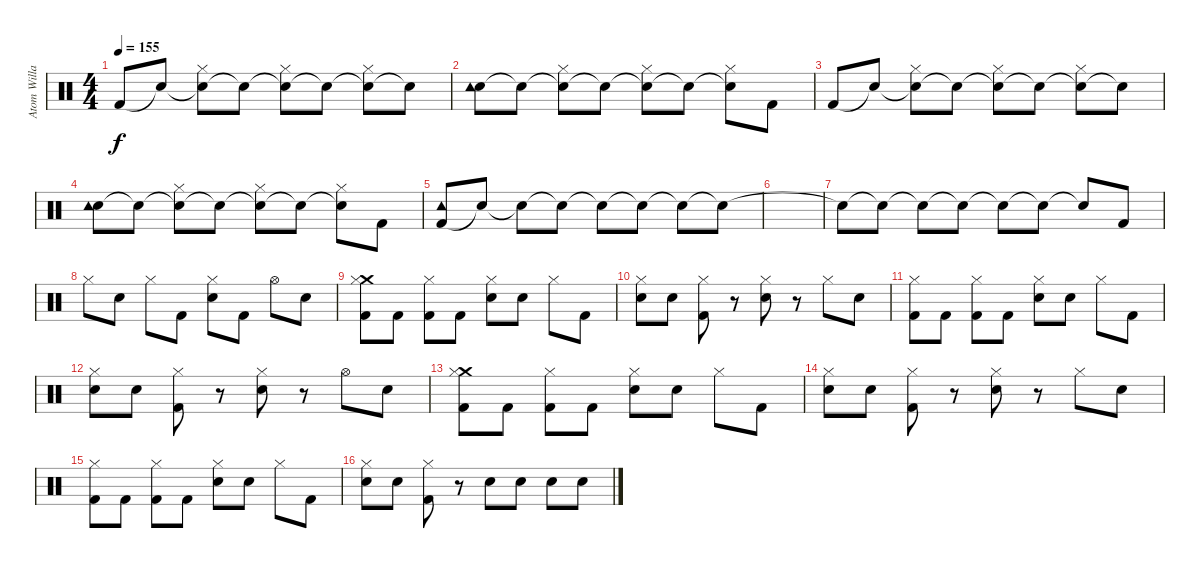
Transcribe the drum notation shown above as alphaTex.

\track ("Atom Willard - Drums" "Atom Willa") {instrument percussion}
\staff {score}
\articulation defaults
\ts (4 4)
\tempo 155
\clef neutral
\ks c "Kick (hit) 2".8{dy f} "Snare (hit)"{t}.8
("Snare (hit)"{t} "Hi-Hat (closed)").8 "Snare (hit)"{t}.8 ("Snare (hit)"{t} "Hi-Hat (closed)").8 "Snare (hit)"{t}.8 ("Snare (hit)"{t} "Hi-Hat (closed)").8 "Snare (hit)"{t}.8 |
("Hand Clap (hit)" "Tambourine (hit)").8 "Snare (hit)"{t}.8 ("Snare (hit)"{t} "Hi-Hat (closed)").8 "Snare (hit)"{t}.8 ("Snare (hit)"{t} "Hi-Hat (closed)").8 "Snare (hit)"{t}.8 ("Snare (hit)"{t} "Hi-Hat (closed)").8 "Kick (hit) 2".8 |
"Kick (hit) 2".8 "Snare (hit)"{t}.8 ("Snare (hit)"{t} "Hi-Hat (closed)").8 "Snare (hit)"{t}.8 ("Snare (hit)"{t} "Hi-Hat (closed)").8 "Snare (hit)"{t}.8 ("Snare (hit)"{t} "Hi-Hat (closed)").8 "Snare (hit)"{t}.8 |
("Hand Clap (hit)" "Tambourine (hit)").8 "Snare (hit)"{t}.8 ("Snare (hit)"{t} "Hi-Hat (closed)").8 "Snare (hit)"{t}.8 ("Snare (hit)"{t} "Hi-Hat (closed)").8 "Snare (hit)"{t}.8 ("Snare (hit)"{t} "Hi-Hat (closed)").8 "Kick (hit) 2".8 |
("Kick (hit) 2" "Tambourine (hit)").8 "Snare (hit)"{t}.8 "Snare (hit)"{t}.8 "Snare (hit)"{t}.8 "Snare (hit)"{t}.8 "Snare (hit)"{t}.8 "Snare (hit)"{t}.8 "Snare (hit)"{t}.8 |
|
"Snare (hit)"{t}.8 "Snare (hit)"{t}.8 "Snare (hit)"{t}.8 "Snare (hit)"{t}.8 "Snare (hit)"{t}.8 "Snare (hit)"{t}.8 "Snare (hit)"{t}.8 "Kick (hit) 2".8 |
"Hi-Hat (closed)".8 "Electric Snare (hit)".8 "Hi-Hat (closed)".8 "Kick (hit) 2".8 ("Electric Snare (hit)" "Hi-Hat (closed)").8 "Kick (hit) 2".8 "Hi-Hat (open)".8 "Snare (hit)".8 |
("Crash medium (hit)" "Kick (hit) 2" "Hi-Hat (closed)").8 "Kick (hit) 2".8 ("Kick (hit) 2" "Hi-Hat (closed)").8 "Kick (hit) 2".8 ("Electric Snare (hit)" "Hi-Hat (closed)").8 "Snare (hit)".8 "Hi-Hat (closed)".8 "Kick (hit) 2".8 |
("Snare (hit)" "Hi-Hat (closed)").8 "Electric Snare (hit)".8 ("Kick (hit) 2" "Hi-Hat (closed)").8 r.8 ("Electric Snare (hit)" "Hi-Hat (closed)").8 r.8 "Hi-Hat (closed)".8 "Snare (hit)".8 |
("Kick (hit) 2" "Hi-Hat (closed)").8 "Kick (hit) 2".8 ("Kick (hit) 2" "Hi-Hat (closed)").8 "Kick (hit) 2".8 ("Electric Snare (hit)" "Hi-Hat (closed)").8 "Snare (hit)".8 "Hi-Hat (closed)".8 "Kick (hit) 2".8 |
("Snare (hit)" "Hi-Hat (closed)").8 "Electric Snare (hit)".8 ("Kick (hit) 2" "Hi-Hat (closed)").8 r.8 ("Electric Snare (hit)" "Hi-Hat (closed)").8 r.8 "Hi-Hat (open)".8 "Snare (hit)".8 |
("Crash medium (hit)" "Kick (hit) 2" "Hi-Hat (closed)").8 "Kick (hit) 2".8 ("Kick (hit) 2" "Hi-Hat (closed)").8 "Kick (hit) 2".8 ("Electric Snare (hit)" "Hi-Hat (closed)").8 "Snare (hit)".8 "Hi-Hat (closed)".8 "Kick (hit) 2".8 |
("Snare (hit)" "Hi-Hat (closed)").8 "Electric Snare (hit)".8 ("Kick (hit) 2" "Hi-Hat (closed)").8 r.8 ("Electric Snare (hit)" "Hi-Hat (closed)").8 r.8 "Hi-Hat (closed)".8 "Snare (hit)".8 |
("Kick (hit) 2" "Hi-Hat (closed)").8 "Kick (hit) 2".8 ("Kick (hit) 2" "Hi-Hat (closed)").8 "Kick (hit) 2".8 ("Electric Snare (hit)" "Hi-Hat (closed)").8 "Snare (hit)".8 "Hi-Hat (closed)".8 "Kick (hit) 2".8 |
("Snare (hit)" "Hi-Hat (closed)").8 "Electric Snare (hit)".8 ("Kick (hit) 2" "Hi-Hat (closed)").8 r.8 "Electric Snare (hit)".8 "Electric Snare (hit)".8 "Electric Snare (hit)".8 "Snare (hit)".8
